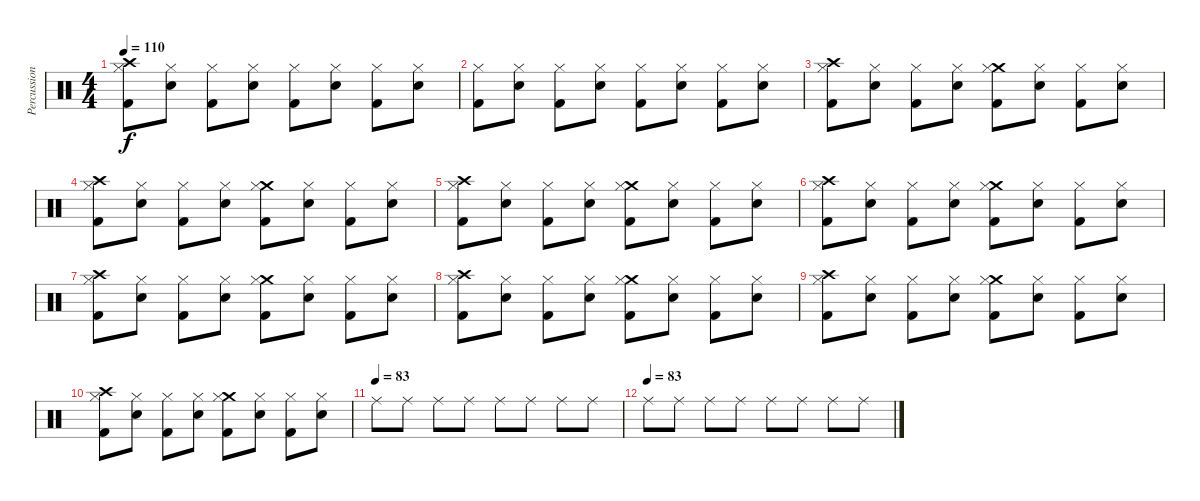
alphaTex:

\track ("Percussions" "Percussion") {instrument percussion}
\staff {score}
\articulation defaults
\ts (4 4)
\tempo 110
\clef neutral
\ks c
("Crash high (hit)" "Hi-Hat (closed)" "Kick (hit) 2").8{dy f} ("Hi-Hat (closed)" "Electric Snare (hit)").8 ("Hi-Hat (closed)" "Kick (hit) 2").8 ("Hi-Hat (closed)" "Electric Snare (hit)").8 ("Hi-Hat (closed)" "Kick (hit) 2").8 ("Hi-Hat (closed)" "Electric Snare (hit)").8 ("Hi-Hat (closed)" "Kick (hit) 2").8 ("Hi-Hat (closed)" "Electric Snare (hit)").8 |
("Hi-Hat (closed)" "Kick (hit) 2").8 ("Hi-Hat (closed)" "Electric Snare (hit)").8 ("Hi-Hat (closed)" "Kick (hit) 2").8 ("Hi-Hat (closed)" "Electric Snare (hit)").8 ("Hi-Hat (closed)" "Kick (hit) 2").8 ("Hi-Hat (closed)" "Electric Snare (hit)").8 ("Hi-Hat (closed)" "Kick (hit) 2").8 ("Hi-Hat (closed)" "Electric Snare (hit)").8 |
("Crash high (hit)" "Hi-Hat (closed)" "Kick (hit) 2").8 ("Hi-Hat (closed)" "Electric Snare (hit)").8 ("Hi-Hat (closed)" "Kick (hit) 2").8 ("Hi-Hat (closed)" "Electric Snare (hit)").8 ("Crash medium (hit)" "Hi-Hat (closed)" "Kick (hit) 2").8 ("Hi-Hat (closed)" "Electric Snare (hit)").8 ("Hi-Hat (closed)" "Kick (hit) 2").8 ("Hi-Hat (closed)" "Electric Snare (hit)").8 |
("Crash high (hit)" "Hi-Hat (closed)" "Kick (hit) 2").8 ("Hi-Hat (closed)" "Electric Snare (hit)").8 ("Hi-Hat (closed)" "Kick (hit) 2").8 ("Hi-Hat (closed)" "Electric Snare (hit)").8 ("Crash medium (hit)" "Hi-Hat (closed)" "Kick (hit) 2").8 ("Hi-Hat (closed)" "Electric Snare (hit)").8 ("Hi-Hat (closed)" "Kick (hit) 2").8 ("Hi-Hat (closed)" "Electric Snare (hit)").8 |
("Crash high (hit)" "Hi-Hat (closed)" "Kick (hit) 2").8 ("Hi-Hat (closed)" "Electric Snare (hit)").8 ("Hi-Hat (closed)" "Kick (hit) 2").8 ("Hi-Hat (closed)" "Electric Snare (hit)").8 ("Crash medium (hit)" "Hi-Hat (closed)" "Kick (hit) 2").8 ("Hi-Hat (closed)" "Electric Snare (hit)").8 ("Hi-Hat (closed)" "Kick (hit) 2").8 ("Hi-Hat (closed)" "Electric Snare (hit)").8 |
("Crash high (hit)" "Hi-Hat (closed)" "Kick (hit) 2").8 ("Hi-Hat (closed)" "Electric Snare (hit)").8 ("Hi-Hat (closed)" "Kick (hit) 2").8 ("Hi-Hat (closed)" "Electric Snare (hit)").8 ("Crash medium (hit)" "Hi-Hat (closed)" "Kick (hit) 2").8 ("Hi-Hat (closed)" "Electric Snare (hit)").8 ("Hi-Hat (closed)" "Kick (hit) 2").8 ("Hi-Hat (closed)" "Electric Snare (hit)").8 |
("Crash high (hit)" "Hi-Hat (closed)" "Kick (hit) 2").8 ("Hi-Hat (closed)" "Electric Snare (hit)").8 ("Hi-Hat (closed)" "Kick (hit) 2").8 ("Hi-Hat (closed)" "Electric Snare (hit)").8 ("Crash medium (hit)" "Hi-Hat (closed)" "Kick (hit) 2").8 ("Hi-Hat (closed)" "Electric Snare (hit)").8 ("Hi-Hat (closed)" "Kick (hit) 2").8 ("Hi-Hat (closed)" "Electric Snare (hit)").8 |
("Crash high (hit)" "Hi-Hat (closed)" "Kick (hit) 2").8 ("Hi-Hat (closed)" "Electric Snare (hit)").8 ("Hi-Hat (closed)" "Kick (hit) 2").8 ("Hi-Hat (closed)" "Electric Snare (hit)").8 ("Crash medium (hit)" "Hi-Hat (closed)" "Kick (hit) 2").8 ("Hi-Hat (closed)" "Electric Snare (hit)").8 ("Hi-Hat (closed)" "Kick (hit) 2").8 ("Hi-Hat (closed)" "Electric Snare (hit)").8 |
("Crash high (hit)" "Hi-Hat (closed)" "Kick (hit) 2").8 ("Hi-Hat (closed)" "Electric Snare (hit)").8 ("Hi-Hat (closed)" "Kick (hit) 2").8 ("Hi-Hat (closed)" "Electric Snare (hit)").8 ("Crash medium (hit)" "Hi-Hat (closed)" "Kick (hit) 2").8 ("Hi-Hat (closed)" "Electric Snare (hit)").8 ("Hi-Hat (closed)" "Kick (hit) 2").8 ("Hi-Hat (closed)" "Electric Snare (hit)").8 |
("Crash high (hit)" "Hi-Hat (closed)" "Kick (hit) 2").8 ("Hi-Hat (closed)" "Electric Snare (hit)").8 ("Hi-Hat (closed)" "Kick (hit) 2").8 ("Hi-Hat (closed)" "Electric Snare (hit)").8 ("Crash medium (hit)" "Hi-Hat (closed)" "Kick (hit) 2").8 ("Hi-Hat (closed)" "Electric Snare (hit)").8 ("Hi-Hat (closed)" "Kick (hit) 2").8 ("Hi-Hat (closed)" "Electric Snare (hit)").8 |
\tempo (83)
"Ride (middle)".8 "Ride (middle)".8 "Ride (middle)".8 "Ride (middle)".8 "Ride (middle)".8 "Ride (middle)".8 "Ride (middle)".8 "Ride (middle)".8 |
\tempo (83)
"Ride (middle)".8 "Ride (middle)".8 "Ride (middle)".8 "Ride (middle)".8 "Ride (middle)".8 "Ride (middle)".8 "Ride (middle)".8 "Ride (middle)".8
